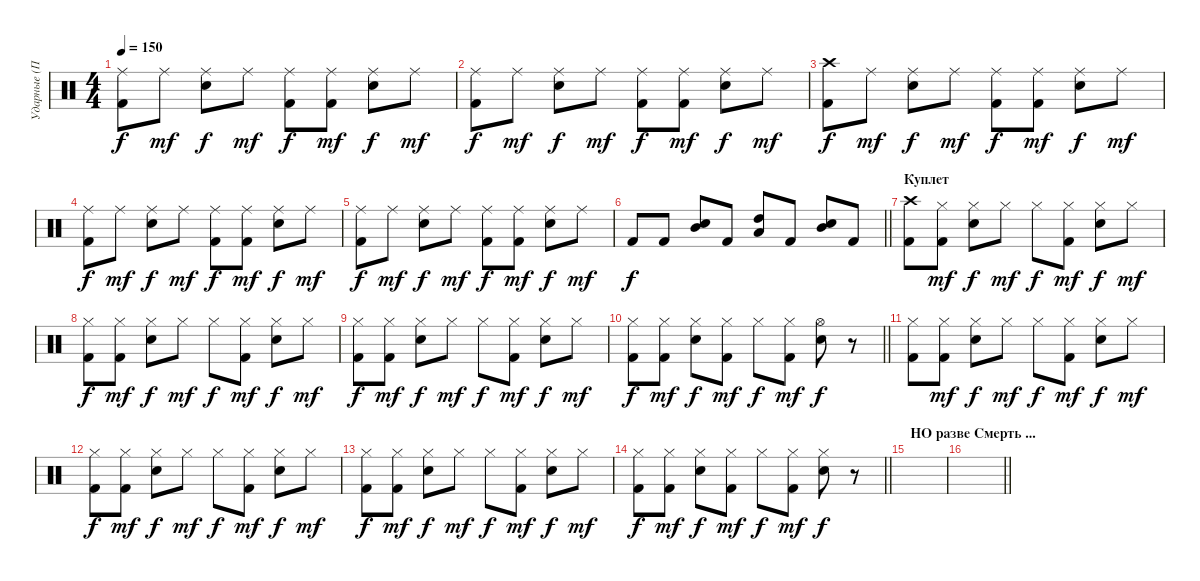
\track ("Ударные (Поручик)" "Ударные (П") {instrument percussion}
\staff {score}
\articulation defaults
\ts (4 4)
\tempo 150
\clef neutral
\ks c
("Ride (middle)" "Kick (hit) 2").8{dy f} "Ride (middle)".8{dy mf} ("Ride (middle)" "Snare (hit) 2").8{dy f} "Ride (middle)".8{dy mf} ("Ride (middle)" "Kick (hit) 2").8{dy f} ("Ride (middle)" "Kick (hit) 2").8{dy mf} ("Ride (middle)" "Snare (hit) 2").8{dy f} "Ride (middle)".8{dy mf} |
("Ride (middle)" "Kick (hit) 2").8{dy f} "Ride (middle)".8{dy mf} ("Ride (middle)" "Snare (hit) 2").8{dy f} "Ride (middle)".8{dy mf} ("Ride (middle)" "Kick (hit) 2").8{dy f} ("Ride (middle)" "Kick (hit) 2").8{dy mf} ("Ride (middle)" "Snare (hit) 2").8{dy f} "Ride (middle)".8{dy mf} |
("Crash high (hit)" "Kick (hit) 2").8{dy f} "Ride (middle)".8{dy mf} ("Ride (middle)" "Snare (hit) 2").8{dy f} "Ride (middle)".8{dy mf} ("Ride (middle)" "Kick (hit) 2").8{dy f} ("Ride (middle)" "Kick (hit) 2").8{dy mf} ("Ride (middle)" "Snare (hit) 2").8{dy f} "Ride (middle)".8{dy mf} |
("Ride (middle)" "Kick (hit) 2").8{dy f} "Ride (middle)".8{dy mf} ("Ride (middle)" "Snare (hit) 2").8{dy f} "Ride (middle)".8{dy mf} ("Ride (middle)" "Kick (hit) 2").8{dy f} ("Ride (middle)" "Kick (hit) 2").8{dy mf} ("Ride (middle)" "Snare (hit) 2").8{dy f} "Ride (middle)".8{dy mf} |
("Ride (middle)" "Kick (hit) 2").8{dy f} "Ride (middle)".8{dy mf} ("Ride (middle)" "Snare (hit) 2").8{dy f} "Ride (middle)".8{dy mf} ("Ride (middle)" "Kick (hit) 2").8{dy f} ("Ride (middle)" "Kick (hit) 2").8{dy mf} ("Ride (middle)" "Snare (hit) 2").8{dy f} "Ride (middle)".8{dy mf} |
\barLineRight lightlight "Kick (hit) 2".8{dy f} "Kick (hit) 2".8
("Mid Tom (hit)" "Snare (hit) 2").8 "Kick (hit) 2".8 ("High Tom (hit)" "Low Tom (hit)").8 "Kick (hit) 2".8 ("Mid Tom (hit)" "Snare (hit) 2").8 "Kick (hit) 2".8 |
\section ("" "Куплет")
("Crash high (hit)" "Kick (hit) 2").8 ("Hi-Hat (closed)" "Kick (hit) 2").8{dy mf} ("Hi-Hat (closed)" "Snare (hit) 2").8{dy f} "Hi-Hat (closed)".8{dy mf} "Hi-Hat (closed)".8{dy f} ("Hi-Hat (closed)" "Kick (hit) 2").8{dy mf} ("Hi-Hat (closed)" "Snare (hit) 2").8{dy f} "Hi-Hat (closed)".8{dy mf} |
("Hi-Hat (closed)" "Kick (hit) 2").8{dy f} ("Hi-Hat (closed)" "Kick (hit) 2").8{dy mf} ("Hi-Hat (closed)" "Snare (hit) 2").8{dy f} "Hi-Hat (closed)".8{dy mf} "Hi-Hat (closed)".8{dy f} ("Hi-Hat (closed)" "Kick (hit) 2").8{dy mf} ("Hi-Hat (closed)" "Snare (hit) 2").8{dy f} "Hi-Hat (closed)".8{dy mf} |
("Hi-Hat (closed)" "Kick (hit) 2").8{dy f} ("Hi-Hat (closed)" "Kick (hit) 2").8{dy mf} ("Hi-Hat (closed)" "Snare (hit) 2").8{dy f} "Hi-Hat (closed)".8{dy mf} "Hi-Hat (closed)".8{dy f} ("Hi-Hat (closed)" "Kick (hit) 2").8{dy mf} ("Hi-Hat (closed)" "Snare (hit) 2").8{dy f} "Hi-Hat (closed)".8{dy mf} |
\barLineRight lightlight
("Hi-Hat (closed)" "Kick (hit) 2").8{dy f} ("Hi-Hat (closed)" "Kick (hit) 2").8{dy mf} ("Hi-Hat (closed)" "Snare (hit) 2").8{dy f} ("Hi-Hat (closed)" "Kick (hit) 2").8{dy mf} "Hi-Hat (closed)".8{dy f} ("Hi-Hat (closed)" "Kick (hit) 2").8{dy mf} ("Hi-Hat (open)" "Snare (hit) 2").8{dy f} r.8 |
("Hi-Hat (closed)" "Kick (hit) 2").8 ("Hi-Hat (closed)" "Kick (hit) 2").8{dy mf} ("Hi-Hat (closed)" "Snare (hit) 2").8{dy f} "Hi-Hat (closed)".8{dy mf} "Hi-Hat (closed)".8{dy f} ("Hi-Hat (closed)" "Kick (hit) 2").8{dy mf} ("Hi-Hat (closed)" "Snare (hit) 2").8{dy f} "Hi-Hat (closed)".8{dy mf} |
("Hi-Hat (closed)" "Kick (hit) 2").8{dy f} ("Hi-Hat (closed)" "Kick (hit) 2").8{dy mf} ("Hi-Hat (closed)" "Snare (hit) 2").8{dy f} "Hi-Hat (closed)".8{dy mf} "Hi-Hat (closed)".8{dy f} ("Hi-Hat (closed)" "Kick (hit) 2").8{dy mf} ("Hi-Hat (closed)" "Snare (hit) 2").8{dy f} "Hi-Hat (closed)".8{dy mf} |
("Hi-Hat (closed)" "Kick (hit) 2").8{dy f} ("Hi-Hat (closed)" "Kick (hit) 2").8{dy mf} ("Hi-Hat (closed)" "Snare (hit) 2").8{dy f} "Hi-Hat (closed)".8{dy mf} "Hi-Hat (closed)".8{dy f} ("Hi-Hat (closed)" "Kick (hit) 2").8{dy mf} ("Hi-Hat (closed)" "Snare (hit) 2").8{dy f} "Hi-Hat (closed)".8{dy mf} |
\barLineRight lightlight
("Hi-Hat (closed)" "Kick (hit) 2").8{dy f} ("Hi-Hat (closed)" "Kick (hit) 2").8{dy mf} ("Hi-Hat (closed)" "Snare (hit) 2").8{dy f} ("Hi-Hat (closed)" "Kick (hit) 2").8{dy mf} "Hi-Hat (closed)".8{dy f} ("Hi-Hat (closed)" "Kick (hit) 2").8{dy mf} ("Hi-Hat (closed)" "Snare (hit) 2").8{dy f} r.8 |
\section ("" "НО разве Смерть ...")
|
\barLineRight lightlight
